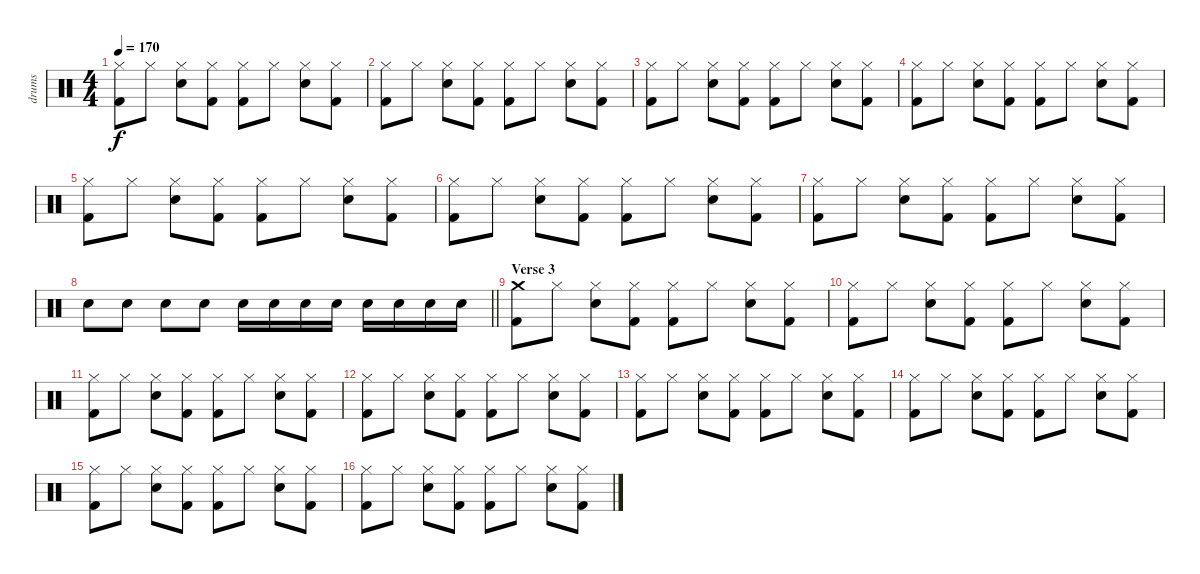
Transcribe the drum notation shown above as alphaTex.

\track ("drums" "drums") {instrument percussion}
\staff {score}
\articulation defaults
\ts (4 4)
\tempo 170
\clef neutral
\ks c
("Hi-Hat (closed)" "Kick (hit) 2").8{dy f} "Hi-Hat (closed)".8 ("Hi-Hat (closed)" "Snare (hit) 2").8 ("Hi-Hat (closed)" "Kick (hit) 2").8 ("Hi-Hat (closed)" "Kick (hit) 2").8 "Hi-Hat (closed)".8 ("Hi-Hat (closed)" "Snare (hit) 2").8 ("Hi-Hat (closed)" "Kick (hit) 2").8 |
("Hi-Hat (closed)" "Kick (hit) 2").8 "Hi-Hat (closed)".8 ("Hi-Hat (closed)" "Snare (hit) 2").8 ("Hi-Hat (closed)" "Kick (hit) 2").8 ("Hi-Hat (closed)" "Kick (hit) 2").8 "Hi-Hat (closed)".8 ("Hi-Hat (closed)" "Snare (hit) 2").8 ("Hi-Hat (closed)" "Kick (hit) 2").8 |
("Hi-Hat (closed)" "Kick (hit) 2").8 "Hi-Hat (closed)".8 ("Hi-Hat (closed)" "Snare (hit) 2").8 ("Hi-Hat (closed)" "Kick (hit) 2").8 ("Hi-Hat (closed)" "Kick (hit) 2").8 "Hi-Hat (closed)".8 ("Hi-Hat (closed)" "Snare (hit) 2").8 ("Hi-Hat (closed)" "Kick (hit) 2").8 |
("Hi-Hat (closed)" "Kick (hit) 2").8 "Hi-Hat (closed)".8 ("Hi-Hat (closed)" "Snare (hit) 2").8 ("Hi-Hat (closed)" "Kick (hit) 2").8 ("Hi-Hat (closed)" "Kick (hit) 2").8 "Hi-Hat (closed)".8 ("Hi-Hat (closed)" "Snare (hit) 2").8 ("Hi-Hat (closed)" "Kick (hit) 2").8 |
("Hi-Hat (closed)" "Kick (hit) 2").8 "Hi-Hat (closed)".8 ("Hi-Hat (closed)" "Snare (hit) 2").8 ("Hi-Hat (closed)" "Kick (hit) 2").8 ("Hi-Hat (closed)" "Kick (hit) 2").8 "Hi-Hat (closed)".8 ("Hi-Hat (closed)" "Snare (hit) 2").8 ("Hi-Hat (closed)" "Kick (hit) 2").8 |
("Hi-Hat (closed)" "Kick (hit) 2").8 "Hi-Hat (closed)".8 ("Hi-Hat (closed)" "Snare (hit) 2").8 ("Hi-Hat (closed)" "Kick (hit) 2").8 ("Hi-Hat (closed)" "Kick (hit) 2").8 "Hi-Hat (closed)".8 ("Hi-Hat (closed)" "Snare (hit) 2").8 ("Hi-Hat (closed)" "Kick (hit) 2").8 |
("Hi-Hat (closed)" "Kick (hit) 2").8 "Hi-Hat (closed)".8 ("Hi-Hat (closed)" "Snare (hit) 2").8 ("Hi-Hat (closed)" "Kick (hit) 2").8 ("Hi-Hat (closed)" "Kick (hit) 2").8 "Hi-Hat (closed)".8 ("Hi-Hat (closed)" "Snare (hit) 2").8 ("Hi-Hat (closed)" "Kick (hit) 2").8 |
\barLineRight lightlight "Snare (hit) 2".8 "Snare (hit) 2".8 "Snare (hit) 2".8 "Snare (hit) 2".8 "Snare (hit) 2".16 "Snare (hit) 2".16 "Snare (hit) 2".16 "Snare (hit) 2".16 "Snare (hit) 2".16 "Snare (hit) 2".16 "Snare (hit) 2".16 "Snare (hit) 2".16
|
\section ("" "Verse 3")
("Crash medium (hit)" "Kick (hit) 2").8 "Hi-Hat (closed)".8 ("Hi-Hat (closed)" "Snare (hit) 2").8 ("Hi-Hat (closed)" "Kick (hit) 2").8 ("Hi-Hat (closed)" "Kick (hit) 2").8 "Hi-Hat (closed)".8 ("Hi-Hat (closed)" "Snare (hit) 2").8 ("Hi-Hat (closed)" "Kick (hit) 2").8 |
("Hi-Hat (closed)" "Kick (hit) 2").8 "Hi-Hat (closed)".8 ("Hi-Hat (closed)" "Snare (hit) 2").8 ("Hi-Hat (closed)" "Kick (hit) 2").8 ("Hi-Hat (closed)" "Kick (hit) 2").8 "Hi-Hat (closed)".8 ("Hi-Hat (closed)" "Snare (hit) 2").8 ("Hi-Hat (closed)" "Kick (hit) 2").8 |
("Hi-Hat (closed)" "Kick (hit) 2").8 "Hi-Hat (closed)".8 ("Hi-Hat (closed)" "Snare (hit) 2").8 ("Hi-Hat (closed)" "Kick (hit) 2").8 ("Hi-Hat (closed)" "Kick (hit) 2").8 "Hi-Hat (closed)".8 ("Hi-Hat (closed)" "Snare (hit) 2").8 ("Hi-Hat (closed)" "Kick (hit) 2").8 |
("Hi-Hat (closed)" "Kick (hit) 2").8 "Hi-Hat (closed)".8 ("Hi-Hat (closed)" "Snare (hit) 2").8 ("Hi-Hat (closed)" "Kick (hit) 2").8 ("Hi-Hat (closed)" "Kick (hit) 2").8 "Hi-Hat (closed)".8 ("Hi-Hat (closed)" "Snare (hit) 2").8 ("Hi-Hat (closed)" "Kick (hit) 2").8 |
("Hi-Hat (closed)" "Kick (hit) 2").8 "Hi-Hat (closed)".8 ("Hi-Hat (closed)" "Snare (hit) 2").8 ("Hi-Hat (closed)" "Kick (hit) 2").8 ("Hi-Hat (closed)" "Kick (hit) 2").8 "Hi-Hat (closed)".8 ("Hi-Hat (closed)" "Snare (hit) 2").8 ("Hi-Hat (closed)" "Kick (hit) 2").8 |
("Hi-Hat (closed)" "Kick (hit) 2").8 "Hi-Hat (closed)".8 ("Hi-Hat (closed)" "Snare (hit) 2").8 ("Hi-Hat (closed)" "Kick (hit) 2").8 ("Hi-Hat (closed)" "Kick (hit) 2").8 "Hi-Hat (closed)".8 ("Hi-Hat (closed)" "Snare (hit) 2").8 ("Hi-Hat (closed)" "Kick (hit) 2").8 |
("Hi-Hat (closed)" "Kick (hit) 2").8 "Hi-Hat (closed)".8 ("Hi-Hat (closed)" "Snare (hit) 2").8 ("Hi-Hat (closed)" "Kick (hit) 2").8 ("Hi-Hat (closed)" "Kick (hit) 2").8 "Hi-Hat (closed)".8 ("Hi-Hat (closed)" "Snare (hit) 2").8 ("Hi-Hat (closed)" "Kick (hit) 2").8 |
("Hi-Hat (closed)" "Kick (hit) 2").8 "Hi-Hat (closed)".8 ("Hi-Hat (closed)" "Snare (hit) 2").8 ("Hi-Hat (closed)" "Kick (hit) 2").8 ("Hi-Hat (closed)" "Kick (hit) 2").8 "Hi-Hat (closed)".8 ("Hi-Hat (closed)" "Snare (hit) 2").8 ("Hi-Hat (closed)" "Kick (hit) 2").8
